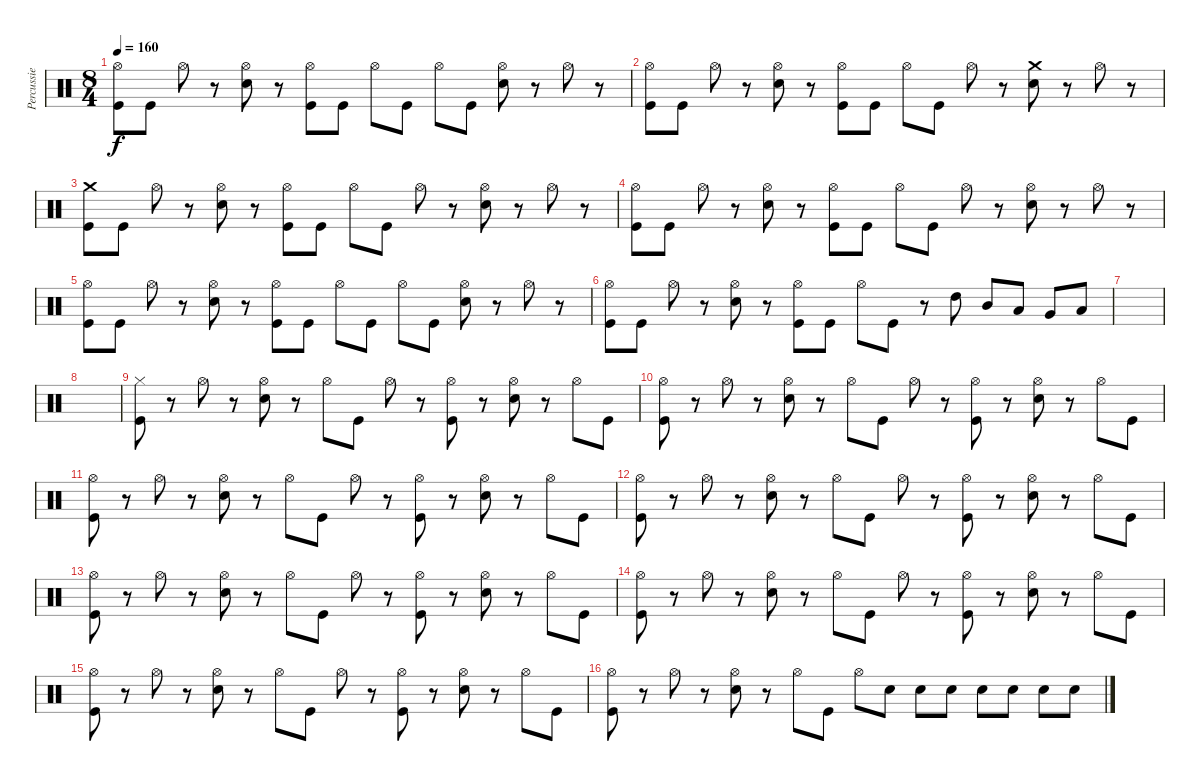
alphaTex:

\track ("Percussie" "Percussie") {instrument percussion}
\staff {score}
\articulation defaults
\ts (8 4)
\tempo 160
\clef neutral
\ks c
("Hi-Hat (open)" "Kick (hit)").8{dy f} "Kick (hit)".8 "Hi-Hat (open)".8 r.8 ("Electric Snare (hit)" "Hi-Hat (open)").8 r.8 ("Hi-Hat (open)" "Kick (hit)").8 "Kick (hit)".8 "Hi-Hat (open)".8 "Kick (hit)".8 "Hi-Hat (open)".8 "Kick (hit)".8 ("Electric Snare (hit)" "Hi-Hat (open)").8 r.8 "Hi-Hat (open)".8 r.8 |
("Hi-Hat (open)" "Kick (hit)").8 "Kick (hit)".8 "Hi-Hat (open)".8 r.8 ("Electric Snare (hit)" "Hi-Hat (open)").8 r.8 ("Hi-Hat (open)" "Kick (hit)").8 "Kick (hit)".8 "Hi-Hat (open)".8 "Kick (hit)".8 "Hi-Hat (open)".8 r.8 ("Electric Snare (hit)" "Crash medium (hit)").8 r.8 "Hi-Hat (open)".8 r.8 |
("Crash medium (hit)" "Kick (hit)").8 "Kick (hit)".8 "Hi-Hat (open)".8 r.8 ("Electric Snare (hit)" "Hi-Hat (open)").8 r.8 ("Hi-Hat (open)" "Kick (hit)").8 "Kick (hit)".8 "Hi-Hat (open)".8 "Kick (hit)".8 "Hi-Hat (open)".8 r.8 ("Electric Snare (hit)" "Hi-Hat (open)").8 r.8 "Hi-Hat (open)".8 r.8 |
("Hi-Hat (open)" "Kick (hit)").8 "Kick (hit)".8 "Hi-Hat (open)".8 r.8 ("Electric Snare (hit)" "Hi-Hat (open)").8 r.8 ("Hi-Hat (open)" "Kick (hit)").8 "Kick (hit)".8 "Hi-Hat (open)".8 "Kick (hit)".8 "Hi-Hat (open)".8 r.8 ("Electric Snare (hit)" "Hi-Hat (open)").8 r.8 "Hi-Hat (open)".8 r.8 |
("Hi-Hat (open)" "Kick (hit)").8 "Kick (hit)".8 "Hi-Hat (open)".8 r.8 ("Electric Snare (hit)" "Hi-Hat (open)").8 r.8 ("Hi-Hat (open)" "Kick (hit)").8 "Kick (hit)".8 "Hi-Hat (open)".8 "Kick (hit)".8 "Hi-Hat (open)".8 "Kick (hit)".8 ("Electric Snare (hit)" "Hi-Hat (open)").8 r.8 "Hi-Hat (open)".8 r.8 |
("Hi-Hat (open)" "Kick (hit)").8 "Kick (hit)".8 "Hi-Hat (open)".8 r.8 ("Electric Snare (hit)" "Hi-Hat (open)").8 r.8 ("Hi-Hat (open)" "Kick (hit)").8 "Kick (hit)".8 "Hi-Hat (open)".8 "Kick (hit)".8 r.8 "High Tom (hit)".8 "Mid Tom (hit)".8 "Low Tom (hit)".8 "Very Low Tom (hit)".8 "Low Floor Tom (hit)".8 |
|
|
("Hi-Hat (closed)" "Kick (hit)").8 r.8 "Hi-Hat (open)".8 r.8 ("Electric Snare (hit)" "Hi-Hat (open)").8 r.8 "Hi-Hat (open)".8 "Kick (hit)".8 "Hi-Hat (open)".8 r.8 ("Hi-Hat (open)" "Kick (hit)").8 r.8 ("Electric Snare (hit)" "Hi-Hat (open)").8 r.8 "Hi-Hat (open)".8 "Kick (hit)".8 |
("Hi-Hat (open)" "Kick (hit)").8 r.8 "Hi-Hat (open)".8 r.8 ("Electric Snare (hit)" "Hi-Hat (open)").8 r.8 "Hi-Hat (open)".8 "Kick (hit)".8 "Hi-Hat (open)".8 r.8 ("Hi-Hat (open)" "Kick (hit)").8 r.8 ("Electric Snare (hit)" "Hi-Hat (open)").8 r.8 "Hi-Hat (open)".8 "Kick (hit)".8 |
("Hi-Hat (open)" "Kick (hit)").8 r.8 "Hi-Hat (open)".8 r.8 ("Electric Snare (hit)" "Hi-Hat (open)").8 r.8 "Hi-Hat (open)".8 "Kick (hit)".8 "Hi-Hat (open)".8 r.8 ("Hi-Hat (open)" "Kick (hit)").8 r.8 ("Electric Snare (hit)" "Hi-Hat (open)").8 r.8 "Hi-Hat (open)".8 "Kick (hit)".8 |
("Hi-Hat (open)" "Kick (hit)").8 r.8 "Hi-Hat (open)".8 r.8 ("Electric Snare (hit)" "Hi-Hat (open)").8 r.8 "Hi-Hat (open)".8 "Kick (hit)".8 "Hi-Hat (open)".8 r.8 ("Hi-Hat (open)" "Kick (hit)").8 r.8 ("Electric Snare (hit)" "Hi-Hat (open)").8 r.8 "Hi-Hat (open)".8 "Kick (hit)".8 |
("Hi-Hat (open)" "Kick (hit)").8 r.8 "Hi-Hat (open)".8 r.8 ("Electric Snare (hit)" "Hi-Hat (open)").8 r.8 "Hi-Hat (open)".8 "Kick (hit)".8 "Hi-Hat (open)".8 r.8 ("Hi-Hat (open)" "Kick (hit)").8 r.8 ("Electric Snare (hit)" "Hi-Hat (open)").8 r.8 "Hi-Hat (open)".8 "Kick (hit)".8 |
("Hi-Hat (open)" "Kick (hit)").8 r.8 "Hi-Hat (open)".8 r.8 ("Electric Snare (hit)" "Hi-Hat (open)").8 r.8 "Hi-Hat (open)".8 "Kick (hit)".8 "Hi-Hat (open)".8 r.8 ("Hi-Hat (open)" "Kick (hit)").8 r.8 ("Electric Snare (hit)" "Hi-Hat (open)").8 r.8 "Hi-Hat (open)".8 "Kick (hit)".8 |
("Hi-Hat (open)" "Kick (hit)").8 r.8 "Hi-Hat (open)".8 r.8 ("Electric Snare (hit)" "Hi-Hat (open)").8 r.8 "Hi-Hat (open)".8 "Kick (hit)".8 "Hi-Hat (open)".8 r.8 ("Hi-Hat (open)" "Kick (hit)").8 r.8 ("Electric Snare (hit)" "Hi-Hat (open)").8 r.8 "Hi-Hat (open)".8 "Kick (hit)".8 |
("Hi-Hat (open)" "Kick (hit)").8 r.8 "Hi-Hat (open)".8 r.8 ("Electric Snare (hit)" "Hi-Hat (open)").8 r.8 "Hi-Hat (open)".8 "Kick (hit)".8 "Hi-Hat (open)".8 "Electric Snare (hit)".8 "Electric Snare (hit)".8 "Electric Snare (hit)".8 "Electric Snare (hit)".8 "Electric Snare (hit)".8 "Electric Snare (hit)".8 "Electric Snare (hit)".8
